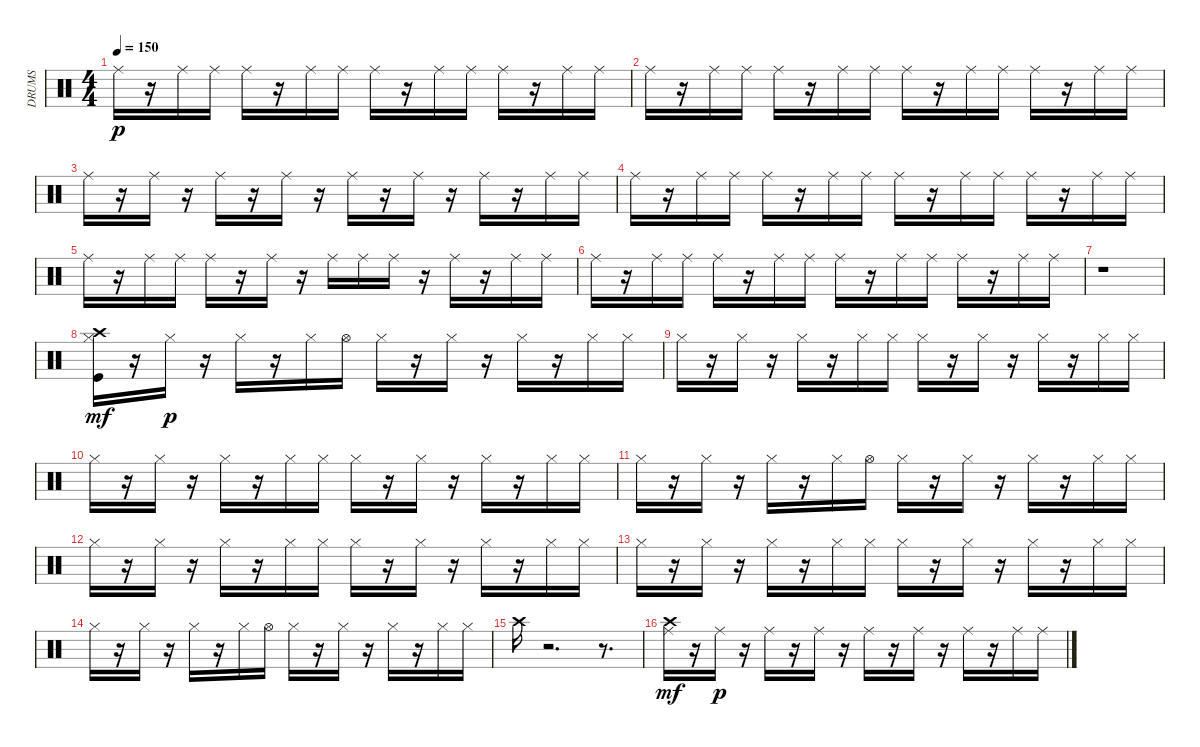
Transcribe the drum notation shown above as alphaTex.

\track ("DRUMS" "DRUMS") {instrument percussion}
\staff {score}
\articulation defaults
\ts (4 4)
\tempo 150
\clef neutral
\ks c "Ride (middle)".16{dy p}
r.16 "Ride (middle)".16 "Ride (middle)".16 "Ride (middle)".16 r.16 "Ride (middle)".16 "Ride (middle)".16 "Ride (middle)".16 r.16 "Ride (middle)".16 "Ride (middle)".16 "Ride (middle)".16 r.16 "Ride (middle)".16 "Ride (middle)".16 |
"Ride (middle)".16 r.16 "Ride (middle)".16 "Ride (middle)".16 "Ride (middle)".16 r.16 "Ride (middle)".16 "Ride (middle)".16 "Ride (middle)".16 r.16 "Ride (middle)".16 "Ride (middle)".16 "Ride (middle)".16 r.16 "Ride (middle)".16 "Ride (middle)".16 |
"Ride (middle)".16 r.16 "Ride (middle)".16 r.16 "Ride (middle)".16 r.16 "Ride (middle)".16 r.16 "Ride (middle)".16 r.16 "Ride (middle)".16 r.16 "Ride (middle)".16 r.16 "Ride (middle)".16 "Ride (middle)".16 |
"Ride (middle)".16 r.16 "Ride (middle)".16 "Ride (middle)".16 "Ride (middle)".16 r.16 "Ride (middle)".16 "Ride (middle)".16 "Ride (middle)".16 r.16 "Ride (middle)".16 "Ride (middle)".16 "Ride (middle)".16 r.16 "Ride (middle)".16 "Ride (middle)".16 |
"Ride (middle)".16 r.16 "Ride (middle)".16 "Ride (middle)".16 "Ride (middle)".16 r.16 "Ride (middle)".16 r.16 "Ride (middle)".16 "Ride (middle)".16 "Ride (middle)".16 r.16 "Ride (middle)".16 r.16 "Ride (middle)".16 "Ride (middle)".16 |
"Ride (middle)".16 r.16 "Ride (middle)".16 "Ride (middle)".16 "Ride (middle)".16 r.16 "Ride (middle)".16 "Ride (middle)".16 "Ride (middle)".16 r.16 "Ride (middle)".16 "Ride (middle)".16 "Ride (middle)".16 r.16 "Ride (middle)".16 "Ride (middle)".16 |
r.1 |
("Hi-Hat (closed)" "Crash high (hit)" "Kick (hit)").16{dy mf} r.16 "Hi-Hat (closed)".16{dy p} r.16 "Hi-Hat (closed)".16 r.16 "Hi-Hat (closed)".16 "Hi-Hat (open)".16 "Hi-Hat (closed)".16 r.16 "Hi-Hat (closed)".16 r.16 "Hi-Hat (closed)".16 r.16 "Hi-Hat (closed)".16 "Hi-Hat (closed)".16 |
"Hi-Hat (closed)".16 r.16 "Hi-Hat (closed)".16 r.16 "Hi-Hat (closed)".16 r.16 "Hi-Hat (closed)".16 "Hi-Hat (closed)".16 "Hi-Hat (closed)".16 r.16 "Hi-Hat (closed)".16 r.16 "Hi-Hat (closed)".16 r.16 "Hi-Hat (closed)".16 "Hi-Hat (closed)".16 |
"Hi-Hat (closed)".16 r.16 "Hi-Hat (closed)".16 r.16 "Hi-Hat (closed)".16 r.16 "Hi-Hat (closed)".16 "Hi-Hat (closed)".16 "Hi-Hat (closed)".16 r.16 "Hi-Hat (closed)".16 r.16 "Hi-Hat (closed)".16 r.16 "Hi-Hat (closed)".16 "Hi-Hat (closed)".16 |
"Hi-Hat (closed)".16 r.16 "Hi-Hat (closed)".16 r.16 "Hi-Hat (closed)".16 r.16 "Hi-Hat (closed)".16 "Hi-Hat (open)".16 "Hi-Hat (closed)".16 r.16 "Hi-Hat (closed)".16 r.16 "Hi-Hat (closed)".16 r.16 "Hi-Hat (closed)".16 "Hi-Hat (closed)".16 |
"Hi-Hat (closed)".16 r.16 "Hi-Hat (closed)".16 r.16 "Hi-Hat (closed)".16 r.16 "Hi-Hat (closed)".16 "Hi-Hat (closed)".16 "Hi-Hat (closed)".16 r.16 "Hi-Hat (closed)".16 r.16 "Hi-Hat (closed)".16 r.16 "Hi-Hat (closed)".16 "Hi-Hat (closed)".16 |
"Hi-Hat (closed)".16 r.16 "Hi-Hat (closed)".16 r.16 "Hi-Hat (closed)".16 r.16 "Hi-Hat (closed)".16 "Hi-Hat (closed)".16 "Hi-Hat (closed)".16 r.16 "Hi-Hat (closed)".16 r.16 "Hi-Hat (closed)".16 r.16 "Hi-Hat (closed)".16 "Hi-Hat (closed)".16 |
"Hi-Hat (closed)".16 r.16 "Hi-Hat (closed)".16 r.16 "Hi-Hat (closed)".16 r.16 "Hi-Hat (closed)".16 "Hi-Hat (open)".16 "Hi-Hat (closed)".16 r.16 "Hi-Hat (closed)".16 r.16 "Hi-Hat (closed)".16 r.16 "Hi-Hat (closed)".16 "Hi-Hat (closed)".16 |
"Crash high (hit)".16 r.2{d} r.8{d} |
("Ride (middle)" "Crash high (hit)").16{dy mf} r.16 "Ride (middle)".16{dy p} r.16 "Ride (middle)".16 r.16 "Ride (middle)".16 r.16 "Ride (middle)".16 r.16 "Ride (middle)".16 r.16 "Ride (middle)".16 r.16 "Ride (middle)".16 "Ride (middle)".16
